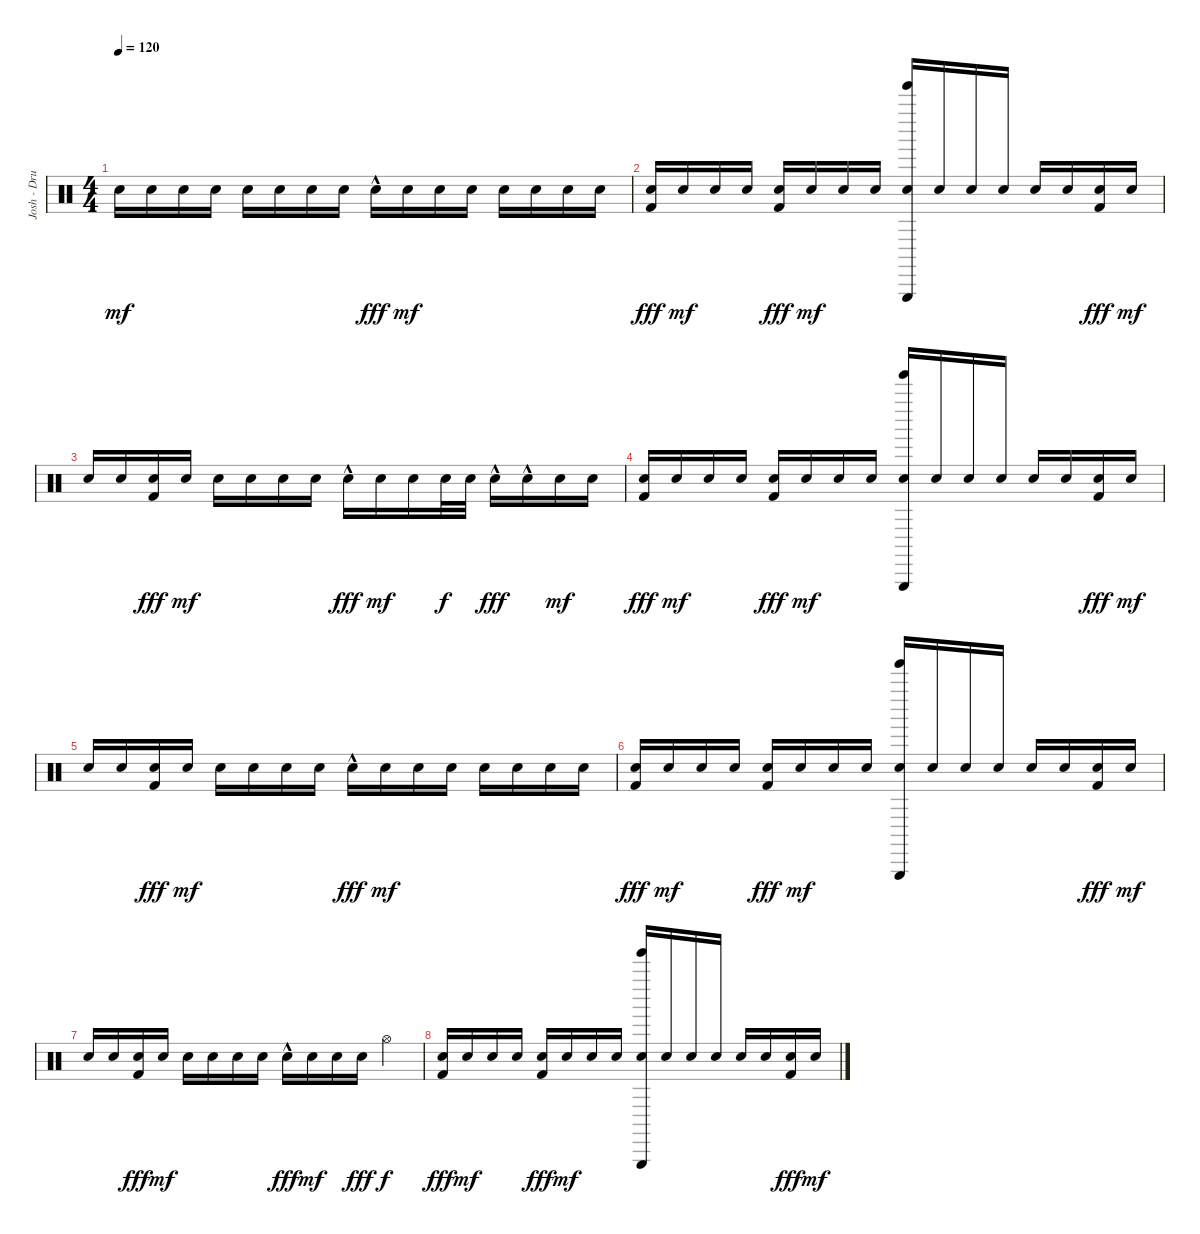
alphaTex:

\track ("Josh - Drums" "Josh - Dru") {instrument percussion}
\staff {score}
\articulation defaults
\ts (4 4)
\tempo 120
\clef neutral
\ks c "Electric Snare (hit)".16{dy mf} "Electric Snare (hit)".16 "Electric Snare (hit)".16 "Electric Snare (hit)".16 "Electric Snare (hit)".16 "Electric Snare (hit)".16 "Electric Snare (hit)".16 "Electric Snare (hit)".16 "Snare (hit) 2"{hac}.16{dy fff} "Electric Snare (hit)".16{dy mf} "Electric Snare (hit)".16 "Electric Snare (hit)".16 "Electric Snare (hit)".16 "Electric Snare (hit)".16 "Electric Snare (hit)".16 "Electric Snare (hit)".16
|
("Electric Snare (hit)" "Kick (hit) 2").16{dy fff} "Electric Snare (hit)".16{dy mf} "Electric Snare (hit)".16 "Electric Snare (hit)".16 ("Electric Snare (hit)" "Kick (hit) 2").16{dy fff} "Electric Snare (hit)".16{dy mf} "Electric Snare (hit)".16 "Electric Snare (hit)".16 ("Electric Snare (hit)" "Tinkle Bell (hit)" "Triangle (hit)").16 "Electric Snare (hit)".16 "Electric Snare (hit)".16 "Electric Snare (hit)".16 "Electric Snare (hit)".16 "Electric Snare (hit)".16 ("Electric Snare (hit)" "Kick (hit) 2").16{dy fff} "Electric Snare (hit)".16{dy mf} |
"Electric Snare (hit)".16 "Electric Snare (hit)".16 ("Electric Snare (hit)" "Kick (hit) 2").16{dy fff} "Electric Snare (hit)".16{dy mf} "Electric Snare (hit)".16 "Electric Snare (hit)".16 "Electric Snare (hit)".16 "Electric Snare (hit)".16 "Snare (hit) 2"{hac}.16{dy fff} "Electric Snare (hit)".16{dy mf} "Electric Snare (hit)".16 "Snare (hit) 2".32{dy f} "Snare (hit) 2".32 "Snare (hit) 2"{hac}.16{dy fff} "Snare (hit) 2"{hac}.16 "Electric Snare (hit)".16{dy mf} "Electric Snare (hit)".16 |
("Electric Snare (hit)" "Kick (hit) 2").16{dy fff} "Electric Snare (hit)".16{dy mf} "Electric Snare (hit)".16 "Electric Snare (hit)".16 ("Electric Snare (hit)" "Kick (hit) 2").16{dy fff} "Electric Snare (hit)".16{dy mf} "Electric Snare (hit)".16 "Electric Snare (hit)".16 ("Electric Snare (hit)" "Tinkle Bell (hit)" "Triangle (hit)").16 "Electric Snare (hit)".16 "Electric Snare (hit)".16 "Electric Snare (hit)".16 "Electric Snare (hit)".16 "Electric Snare (hit)".16 ("Electric Snare (hit)" "Kick (hit) 2").16{dy fff} "Electric Snare (hit)".16{dy mf} |
"Electric Snare (hit)".16 "Electric Snare (hit)".16 ("Electric Snare (hit)" "Kick (hit) 2").16{dy fff} "Electric Snare (hit)".16{dy mf} "Electric Snare (hit)".16 "Electric Snare (hit)".16 "Electric Snare (hit)".16 "Electric Snare (hit)".16 "Snare (hit) 2"{hac}.16{dy fff} "Electric Snare (hit)".16{dy mf} "Electric Snare (hit)".16 "Electric Snare (hit)".16 "Electric Snare (hit)".16 "Electric Snare (hit)".16 "Electric Snare (hit)".16 "Electric Snare (hit)".16 |
("Electric Snare (hit)" "Kick (hit) 2").16{dy fff} "Electric Snare (hit)".16{dy mf} "Electric Snare (hit)".16 "Electric Snare (hit)".16 ("Electric Snare (hit)" "Kick (hit) 2").16{dy fff} "Electric Snare (hit)".16{dy mf} "Electric Snare (hit)".16 "Electric Snare (hit)".16 ("Electric Snare (hit)" "Tinkle Bell (hit)" "Triangle (hit)").16 "Electric Snare (hit)".16 "Electric Snare (hit)".16 "Electric Snare (hit)".16 "Electric Snare (hit)".16 "Electric Snare (hit)".16 ("Electric Snare (hit)" "Kick (hit) 2").16{dy fff} "Electric Snare (hit)".16{dy mf} |
"Electric Snare (hit)".16 "Electric Snare (hit)".16 ("Electric Snare (hit)" "Kick (hit) 2").16{dy fff} "Electric Snare (hit)".16{dy mf} "Electric Snare (hit)".16 "Electric Snare (hit)".16 "Electric Snare (hit)".16 "Electric Snare (hit)".16 "Snare (hit) 2"{hac}.16{dy fff} "Electric Snare (hit)".16{dy mf} "Electric Snare (hit)".16 "Electric Snare (hit)".16{dy fff} "Hi-Hat (open)".4{dy f} |
("Electric Snare (hit)" "Kick (hit) 2").16{dy fff} "Electric Snare (hit)".16{dy mf} "Electric Snare (hit)".16 "Electric Snare (hit)".16 ("Electric Snare (hit)" "Kick (hit) 2").16{dy fff} "Electric Snare (hit)".16{dy mf} "Electric Snare (hit)".16 "Electric Snare (hit)".16 ("Electric Snare (hit)" "Tinkle Bell (hit)" "Triangle (hit)").16 "Electric Snare (hit)".16 "Electric Snare (hit)".16 "Electric Snare (hit)".16 "Electric Snare (hit)".16 "Electric Snare (hit)".16 ("Electric Snare (hit)" "Kick (hit) 2").16{dy fff} "Electric Snare (hit)".16{dy mf}
